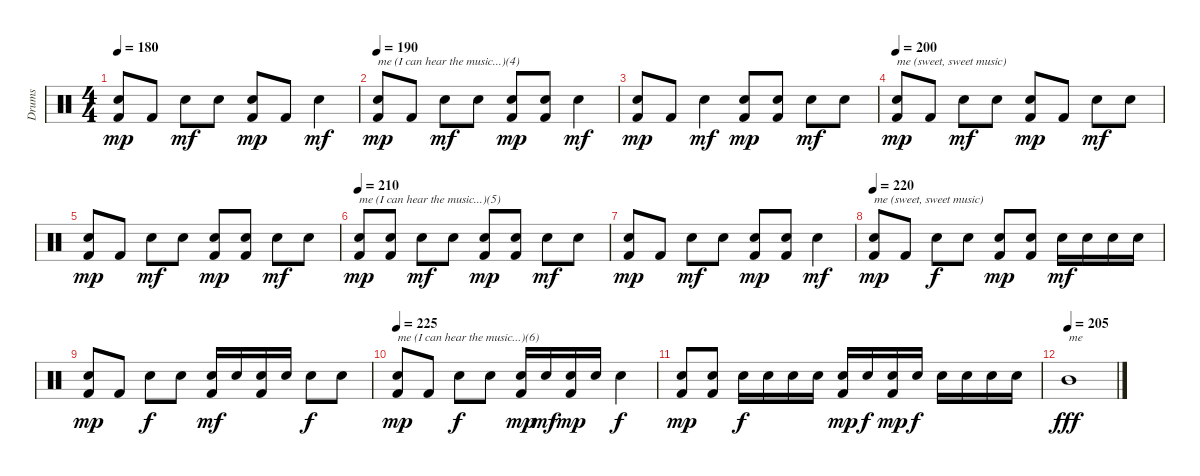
\track ("Drums" "Drums") {instrument percussion}
\staff {score}
\articulation defaults
\ts (4 4)
\tempo 180
\clef neutral
\ks c
("Snare (hit) 2" "Kick (hit) 2").8{dy mp} "Kick (hit) 2".8 "Snare (hit) 2".8{dy mf} "Snare (hit) 2".8 ("Snare (hit) 2" "Kick (hit) 2").8{dy mp} "Kick (hit) 2".8 "Snare (hit) 2".4{dy mf} |
\tempo 190
("Snare (hit) 2" "Kick (hit) 2").8{txt "me (I can hear the music...)(4)" dy mp} "Kick (hit) 2".8 "Snare (hit) 2".8{dy mf} "Snare (hit) 2".8 ("Snare (hit) 2" "Kick (hit) 2").8{dy mp} ("Snare (hit) 2" "Kick (hit) 2").8 "Snare (hit) 2".4{dy mf} |
("Snare (hit) 2" "Kick (hit) 2").8{dy mp} "Kick (hit) 2".8 "Snare (hit) 2".4{dy mf} ("Snare (hit) 2" "Kick (hit) 2").8{dy mp} ("Snare (hit) 2" "Kick (hit) 2").8 "Snare (hit) 2".8{dy mf} "Snare (hit) 2".8 |
\tempo 200
("Snare (hit) 2" "Kick (hit) 2").8{txt "me (sweet, sweet music)" dy mp} "Kick (hit) 2".8 "Snare (hit) 2".8{dy mf} "Snare (hit) 2".8 ("Snare (hit) 2" "Kick (hit) 2").8{dy mp} "Kick (hit) 2".8 "Snare (hit) 2".8{dy mf} "Snare (hit) 2".8 |
("Snare (hit) 2" "Kick (hit) 2").8{dy mp} "Kick (hit) 2".8 "Snare (hit) 2".8{dy mf} "Snare (hit) 2".8 ("Snare (hit) 2" "Kick (hit) 2").8{dy mp} ("Snare (hit) 2" "Kick (hit) 2").8 "Snare (hit) 2".8{dy mf} "Snare (hit) 2".8 |
\tempo 210
("Snare (hit) 2" "Kick (hit) 2").8{txt "me (I can hear the music...)(5)" dy mp} ("Snare (hit) 2" "Kick (hit) 2").8 "Snare (hit) 2".8{dy mf} "Snare (hit) 2".8 ("Snare (hit) 2" "Kick (hit) 2").8{dy mp} ("Snare (hit) 2" "Kick (hit) 2").8 "Snare (hit) 2".8{dy mf} "Snare (hit) 2".8 |
("Snare (hit) 2" "Kick (hit) 2").8{dy mp} "Kick (hit) 2".8 "Snare (hit) 2".8{dy mf} "Snare (hit) 2".8 ("Snare (hit) 2" "Kick (hit) 2").8{dy mp} ("Snare (hit) 2" "Kick (hit) 2").8 "Snare (hit) 2".4{dy mf} |
\tempo 220
("Snare (hit) 2" "Kick (hit) 2").8{txt "me (sweet, sweet music)" dy mp} "Kick (hit) 2".8 "Snare (hit) 2".8{dy f} "Snare (hit) 2".8 ("Snare (hit) 2" "Kick (hit) 2").8{dy mp} ("Snare (hit) 2" "Kick (hit) 2").8 "Snare (hit) 2".16{dy mf} "Snare (hit) 2".16 "Snare (hit) 2".16 "Snare (hit) 2".16 |
("Snare (hit) 2" "Kick (hit) 2").8{dy mp} "Kick (hit) 2".8 "Snare (hit) 2".8{dy f} "Snare (hit) 2".8 ("Snare (hit) 2" "Kick (hit) 2").16{dy mf} "Snare (hit) 2".16 ("Snare (hit) 2" "Kick (hit) 2").16 "Snare (hit) 2".16 "Snare (hit) 2".8{dy f} "Snare (hit) 2".8 |
\tempo 225
("Snare (hit) 2" "Kick (hit) 2").8{txt "me (I can hear the music...)(6)" dy mp} "Kick (hit) 2".8 "Snare (hit) 2".8{dy f} "Snare (hit) 2".8 ("Snare (hit) 2" "Kick (hit) 2").16{dy mp} "Snare (hit) 2".16{dy mf} ("Snare (hit) 2" "Kick (hit) 2").16{dy mp} "Snare (hit) 2".16 "Snare (hit) 2".4{dy f} |
("Snare (hit) 2" "Kick (hit) 2").8{dy mp} ("Snare (hit) 2" "Kick (hit) 2").8 "Snare (hit) 2".16{dy f} "Snare (hit) 2".16 "Snare (hit) 2".16 "Snare (hit) 2".16 ("Snare (hit) 2" "Kick (hit) 2").16{dy mp} "Snare (hit) 2".16{dy f} ("Snare (hit) 2" "Kick (hit) 2").16{dy mp} "Snare (hit) 2".16{dy f} "Snare (hit) 2".16 "Snare (hit) 2".16 "Snare (hit) 2".16 "Snare (hit) 2".16 |
\tempo (205)
"Mid Tom (hit)".1{txt "me" dy fff}
